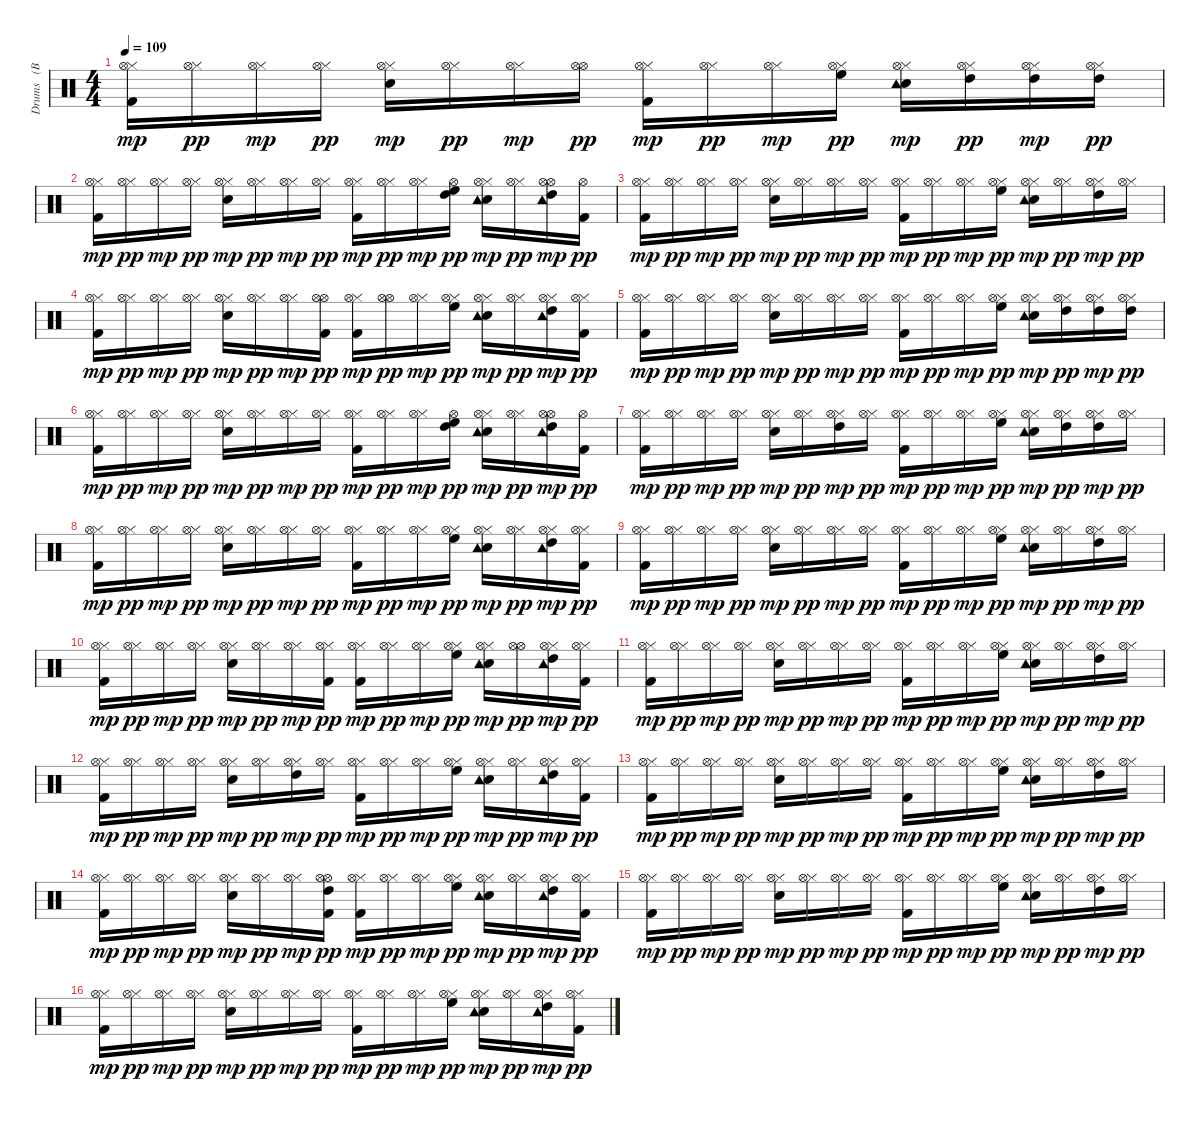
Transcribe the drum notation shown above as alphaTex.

\track ("Drums   (BB)" "Drums   (B") {instrument percussion}
\staff {score}
\articulation defaults
\ts (4 4)
\tempo 109
\clef neutral
\ks c
("Kick (hit) 2" "Hi-Hat (closed)" "Hi-Hat (open)").16{dy mp} ("Hi-Hat (closed)" "Hi-Hat (open)").16{dy pp} ("Hi-Hat (closed)" "Hi-Hat (open)").16{dy mp} ("Hi-Hat (closed)" "Hi-Hat (open)").16{dy pp} ("Snare (hit) 2" "Hi-Hat (closed)" "Hi-Hat (open)").16{dy mp} ("Hi-Hat (closed)" "Hi-Hat (open)").16{dy pp} ("Hi-Hat (closed)" "Hi-Hat (open)").16{dy mp} ("Hi-Hat (open)" "Hi-Hat (open)").16{dy pp} ("Kick (hit) 2" "Hi-Hat (closed)" "Hi-Hat (open)").16{dy mp} ("Hi-Hat (closed)" "Hi-Hat (open)").16{dy pp} ("Hi-Hat (closed)" "Hi-Hat (open)").16{dy mp} ("Hi-Hat (closed)" "High Floor Tom (hit)" "Hi-Hat (open)").16{dy pp} ("Snare (hit) 2" "Hi-Hat (closed)" "Tambourine (hit)" "Hi-Hat (open)").16{dy mp} ("Hi-Hat (closed)" "High Tom (hit)" "Hi-Hat (open)").16{dy pp} ("Hi-Hat (closed)" "High Tom (hit)" "Hi-Hat (open)").16{dy mp} ("Hi-Hat (closed)" "High Tom (hit)" "Hi-Hat (open)").16{dy pp} |
("Kick (hit) 2" "Hi-Hat (closed)" "Hi-Hat (open)").16{dy mp} ("Hi-Hat (closed)" "Hi-Hat (open)").16{dy pp} ("Hi-Hat (closed)" "Hi-Hat (open)").16{dy mp} ("Hi-Hat (closed)" "Hi-Hat (open)").16{dy pp} ("Snare (hit) 2" "Hi-Hat (closed)" "Hi-Hat (open)").16{dy mp} ("Hi-Hat (closed)" "Hi-Hat (open)").16{dy pp} ("Hi-Hat (closed)" "Hi-Hat (open)").16{dy mp} ("Hi-Hat (closed)" "Hi-Hat (open)").16{dy pp} ("Kick (hit) 2" "Hi-Hat (closed)" "Hi-Hat (open)").16{dy mp} ("Hi-Hat (closed)" "Hi-Hat (open)").16{dy pp} ("Hi-Hat (closed)" "Hi-Hat (open)").16{dy mp} ("High Tom (hit)" "High Floor Tom (hit)" "Hi-Hat (open)").16{dy pp} ("Snare (hit) 2" "Hi-Hat (closed)" "Tambourine (hit)" "Hi-Hat (open)").16{dy mp} ("Hi-Hat (closed)" "Hi-Hat (open)").16{dy pp} ("Hi-Hat (open)" "High Tom (hit)" "Tambourine (hit)" "Hi-Hat (open)").16{dy mp} ("Kick (hit) 2" "Hi-Hat (open)").16{dy pp} |
("Kick (hit) 2" "Hi-Hat (closed)" "Hi-Hat (open)").16{dy mp} ("Hi-Hat (closed)" "Hi-Hat (open)").16{dy pp} ("Hi-Hat (closed)" "Hi-Hat (open)").16{dy mp} ("Hi-Hat (closed)" "Hi-Hat (open)").16{dy pp} ("Snare (hit) 2" "Hi-Hat (closed)" "Hi-Hat (open)").16{dy mp} ("Hi-Hat (closed)" "Hi-Hat (open)").16{dy pp} ("Hi-Hat (closed)" "Hi-Hat (open)").16{dy mp} ("Hi-Hat (closed)" "Hi-Hat (open)").16{dy pp} ("Kick (hit) 2" "Hi-Hat (closed)" "Hi-Hat (open)").16{dy mp} ("Hi-Hat (closed)" "Hi-Hat (open)").16{dy pp} ("Hi-Hat (closed)" "Hi-Hat (open)").16{dy mp} ("Hi-Hat (closed)" "High Floor Tom (hit)" "Hi-Hat (open)").16{dy pp} ("Snare (hit) 2" "Hi-Hat (closed)" "Tambourine (hit)" "Hi-Hat (open)").16{dy mp} ("Hi-Hat (closed)" "Hi-Hat (open)").16{dy pp} ("Hi-Hat (closed)" "High Tom (hit)" "Hi-Hat (open)").16{dy mp} ("Hi-Hat (closed)" "Hi-Hat (open)").16{dy pp} |
("Kick (hit) 2" "Hi-Hat (closed)" "Hi-Hat (open)").16{dy mp} ("Hi-Hat (closed)" "Hi-Hat (open)").16{dy pp} ("Hi-Hat (closed)" "Hi-Hat (open)").16{dy mp} ("Hi-Hat (closed)" "Hi-Hat (open)").16{dy pp} ("Snare (hit) 2" "Hi-Hat (closed)" "Hi-Hat (open)").16{dy mp} ("Hi-Hat (closed)" "Hi-Hat (open)").16{dy pp} ("Hi-Hat (closed)" "Hi-Hat (open)").16{dy mp} ("Kick (hit) 2" "Hi-Hat (open)" "Hi-Hat (open)").16{dy pp} ("Kick (hit) 2" "Hi-Hat (closed)" "Hi-Hat (open)").16{dy mp} ("Hi-Hat (open)" "Hi-Hat (open)").16{dy pp} ("Hi-Hat (closed)" "Hi-Hat (open)").16{dy mp} ("Hi-Hat (closed)" "High Floor Tom (hit)" "Hi-Hat (open)").16{dy pp} ("Snare (hit) 2" "Hi-Hat (closed)" "Tambourine (hit)" "Hi-Hat (open)").16{dy mp} ("Hi-Hat (closed)" "Hi-Hat (open)").16{dy pp} ("Hi-Hat (closed)" "High Tom (hit)" "Tambourine (hit)" "Hi-Hat (open)").16{dy mp} ("Kick (hit) 2" "Hi-Hat (closed)" "Hi-Hat (open)").16{dy pp} |
("Kick (hit) 2" "Hi-Hat (closed)" "Hi-Hat (open)").16{dy mp} ("Hi-Hat (closed)" "Hi-Hat (open)").16{dy pp} ("Hi-Hat (closed)" "Hi-Hat (open)").16{dy mp} ("Hi-Hat (closed)" "Hi-Hat (open)").16{dy pp} ("Snare (hit) 2" "Hi-Hat (closed)" "Hi-Hat (open)").16{dy mp} ("Hi-Hat (closed)" "Hi-Hat (open)").16{dy pp} ("Hi-Hat (closed)" "Hi-Hat (open)").16{dy mp} ("Hi-Hat (closed)" "Hi-Hat (open)").16{dy pp} ("Kick (hit) 2" "Hi-Hat (closed)" "Hi-Hat (open)").16{dy mp} ("Hi-Hat (closed)" "Hi-Hat (open)").16{dy pp} ("Hi-Hat (closed)" "Hi-Hat (open)").16{dy mp} ("Hi-Hat (closed)" "High Floor Tom (hit)" "Hi-Hat (open)").16{dy pp} ("Snare (hit) 2" "Hi-Hat (closed)" "Tambourine (hit)" "Hi-Hat (open)").16{dy mp} ("Hi-Hat (closed)" "High Tom (hit)" "Hi-Hat (open)").16{dy pp} ("Hi-Hat (closed)" "High Tom (hit)" "Hi-Hat (open)").16{dy mp} ("Hi-Hat (closed)" "High Tom (hit)" "Hi-Hat (open)").16{dy pp} |
("Kick (hit) 2" "Hi-Hat (closed)" "Hi-Hat (open)").16{dy mp} ("Hi-Hat (closed)" "Hi-Hat (open)").16{dy pp} ("Hi-Hat (closed)" "Hi-Hat (open)").16{dy mp} ("Hi-Hat (closed)" "Hi-Hat (open)").16{dy pp} ("Snare (hit) 2" "Hi-Hat (closed)" "Hi-Hat (open)").16{dy mp} ("Hi-Hat (closed)" "Hi-Hat (open)").16{dy pp} ("Hi-Hat (closed)" "Hi-Hat (open)").16{dy mp} ("Hi-Hat (closed)" "Hi-Hat (open)").16{dy pp} ("Kick (hit) 2" "Hi-Hat (closed)" "Hi-Hat (open)").16{dy mp} ("Hi-Hat (closed)" "Hi-Hat (open)").16{dy pp} ("Hi-Hat (closed)" "Hi-Hat (open)").16{dy mp} ("High Tom (hit)" "High Floor Tom (hit)" "Hi-Hat (open)").16{dy pp} ("Snare (hit) 2" "Hi-Hat (closed)" "Tambourine (hit)" "Hi-Hat (open)").16{dy mp} ("Hi-Hat (closed)" "Hi-Hat (open)").16{dy pp} ("Hi-Hat (open)" "High Tom (hit)" "Tambourine (hit)" "Hi-Hat (open)").16{dy mp} ("Kick (hit) 2" "Hi-Hat (open)").16{dy pp} |
("Kick (hit) 2" "Hi-Hat (closed)" "Hi-Hat (open)").16{dy mp} ("Hi-Hat (closed)" "Hi-Hat (open)").16{dy pp} ("Hi-Hat (closed)" "Hi-Hat (open)").16{dy mp} ("Hi-Hat (closed)" "Hi-Hat (open)").16{dy pp} ("Snare (hit) 2" "Hi-Hat (closed)" "Hi-Hat (open)").16{dy mp} ("Hi-Hat (closed)" "Hi-Hat (open)").16{dy pp} ("Hi-Hat (closed)" "High Tom (hit)" "Hi-Hat (open)").16{dy mp} ("Hi-Hat (closed)" "Hi-Hat (open)").16{dy pp} ("Kick (hit) 2" "Hi-Hat (closed)" "Hi-Hat (open)").16{dy mp} ("Hi-Hat (closed)" "Hi-Hat (open)").16{dy pp} ("Hi-Hat (closed)" "Hi-Hat (open)").16{dy mp} ("Hi-Hat (closed)" "High Floor Tom (hit)" "Hi-Hat (open)").16{dy pp} ("Snare (hit) 2" "Hi-Hat (closed)" "Tambourine (hit)" "Hi-Hat (open)").16{dy mp} ("Hi-Hat (closed)" "High Tom (hit)" "Hi-Hat (open)").16{dy pp} ("Hi-Hat (closed)" "High Tom (hit)" "Hi-Hat (open)").16{dy mp} ("Hi-Hat (closed)" "Hi-Hat (open)").16{dy pp} |
("Kick (hit) 2" "Hi-Hat (closed)" "Hi-Hat (open)").16{dy mp} ("Hi-Hat (closed)" "Hi-Hat (open)").16{dy pp} ("Hi-Hat (closed)" "Hi-Hat (open)").16{dy mp} ("Hi-Hat (closed)" "Hi-Hat (open)").16{dy pp} ("Snare (hit) 2" "Hi-Hat (closed)" "Hi-Hat (open)").16{dy mp} ("Hi-Hat (closed)" "Hi-Hat (open)").16{dy pp} ("Hi-Hat (closed)" "Hi-Hat (open)").16{dy mp} ("Hi-Hat (closed)" "Hi-Hat (open)").16{dy pp} ("Kick (hit) 2" "Hi-Hat (closed)" "Hi-Hat (open)").16{dy mp} ("Hi-Hat (closed)" "Hi-Hat (open)").16{dy pp} ("Hi-Hat (closed)" "Hi-Hat (open)").16{dy mp} ("Hi-Hat (closed)" "High Floor Tom (hit)" "Hi-Hat (open)").16{dy pp} ("Snare (hit) 2" "Hi-Hat (closed)" "Tambourine (hit)" "Hi-Hat (open)").16{dy mp} ("Hi-Hat (closed)" "Hi-Hat (open)").16{dy pp} ("Hi-Hat (closed)" "High Tom (hit)" "Tambourine (hit)" "Hi-Hat (open)").16{dy mp} ("Kick (hit) 2" "Hi-Hat (closed)" "Hi-Hat (open)").16{dy pp} |
("Kick (hit) 2" "Hi-Hat (closed)" "Hi-Hat (open)").16{dy mp} ("Hi-Hat (closed)" "Hi-Hat (open)").16{dy pp} ("Hi-Hat (closed)" "Hi-Hat (open)").16{dy mp} ("Hi-Hat (closed)" "Hi-Hat (open)").16{dy pp} ("Snare (hit) 2" "Hi-Hat (closed)" "Hi-Hat (open)").16{dy mp} ("Hi-Hat (closed)" "Hi-Hat (open)").16{dy pp} ("Hi-Hat (closed)" "Hi-Hat (open)").16{dy mp} ("Hi-Hat (closed)" "Hi-Hat (open)").16{dy pp} ("Kick (hit) 2" "Hi-Hat (closed)" "Hi-Hat (open)").16{dy mp} ("Hi-Hat (closed)" "Hi-Hat (open)").16{dy pp} ("Hi-Hat (closed)" "Hi-Hat (open)").16{dy mp} ("Hi-Hat (closed)" "High Floor Tom (hit)" "Hi-Hat (open)").16{dy pp} ("Snare (hit) 2" "Hi-Hat (closed)" "Tambourine (hit)" "Hi-Hat (open)").16{dy mp} ("Hi-Hat (closed)" "Hi-Hat (open)").16{dy pp} ("Hi-Hat (closed)" "High Tom (hit)" "Hi-Hat (open)").16{dy mp} ("Hi-Hat (closed)" "Hi-Hat (open)").16{dy pp} |
("Kick (hit) 2" "Hi-Hat (closed)" "Hi-Hat (open)").16{dy mp} ("Hi-Hat (closed)" "Hi-Hat (open)").16{dy pp} ("Hi-Hat (closed)" "Hi-Hat (open)").16{dy mp} ("Hi-Hat (closed)" "Hi-Hat (open)").16{dy pp} ("Snare (hit) 2" "Hi-Hat (closed)" "Hi-Hat (open)").16{dy mp} ("Hi-Hat (closed)" "Hi-Hat (open)").16{dy pp} ("Hi-Hat (closed)" "Hi-Hat (open)").16{dy mp} ("Kick (hit) 2" "Hi-Hat (closed)" "Hi-Hat (open)").16{dy pp} ("Kick (hit) 2" "Hi-Hat (closed)" "Hi-Hat (open)").16{dy mp} ("Hi-Hat (closed)" "Hi-Hat (open)").16{dy pp} ("Hi-Hat (closed)" "Hi-Hat (open)").16{dy mp} ("Hi-Hat (closed)" "High Floor Tom (hit)" "Hi-Hat (open)").16{dy pp} ("Snare (hit) 2" "Hi-Hat (closed)" "Tambourine (hit)" "Hi-Hat (open)").16{dy mp} ("Hi-Hat (open)" "Hi-Hat (open)").16{dy pp} ("Hi-Hat (closed)" "High Tom (hit)" "Tambourine (hit)" "Hi-Hat (open)").16{dy mp} ("Kick (hit) 2" "Hi-Hat (closed)" "Hi-Hat (open)").16{dy pp} |
("Kick (hit) 2" "Hi-Hat (closed)" "Hi-Hat (open)").16{dy mp} ("Hi-Hat (closed)" "Hi-Hat (open)").16{dy pp} ("Hi-Hat (closed)" "Hi-Hat (open)").16{dy mp} ("Hi-Hat (closed)" "Hi-Hat (open)").16{dy pp} ("Snare (hit) 2" "Hi-Hat (closed)" "Hi-Hat (open)").16{dy mp} ("Hi-Hat (closed)" "Hi-Hat (open)").16{dy pp} ("Hi-Hat (closed)" "Hi-Hat (open)").16{dy mp} ("Hi-Hat (closed)" "Hi-Hat (open)").16{dy pp} ("Kick (hit) 2" "Hi-Hat (closed)" "Hi-Hat (open)").16{dy mp} ("Hi-Hat (closed)" "Hi-Hat (open)").16{dy pp} ("Hi-Hat (closed)" "Hi-Hat (open)").16{dy mp} ("Hi-Hat (closed)" "High Floor Tom (hit)" "Hi-Hat (open)").16{dy pp} ("Snare (hit) 2" "Hi-Hat (closed)" "Tambourine (hit)" "Hi-Hat (open)").16{dy mp} ("Hi-Hat (closed)" "Hi-Hat (open)").16{dy pp} ("Hi-Hat (closed)" "High Tom (hit)" "Hi-Hat (open)").16{dy mp} ("Hi-Hat (closed)" "Hi-Hat (open)").16{dy pp} |
("Kick (hit) 2" "Hi-Hat (closed)" "Hi-Hat (open)").16{dy mp} ("Hi-Hat (closed)" "Hi-Hat (open)").16{dy pp} ("Hi-Hat (closed)" "Hi-Hat (open)").16{dy mp} ("Hi-Hat (closed)" "Hi-Hat (open)").16{dy pp} ("Snare (hit) 2" "Hi-Hat (closed)" "Hi-Hat (open)").16{dy mp} ("Hi-Hat (closed)" "Hi-Hat (open)").16{dy pp} ("Hi-Hat (closed)" "High Tom (hit)" "Hi-Hat (open)").16{dy mp} ("Hi-Hat (closed)" "Hi-Hat (open)").16{dy pp} ("Kick (hit) 2" "Hi-Hat (closed)" "Hi-Hat (open)").16{dy mp} ("Hi-Hat (closed)" "Hi-Hat (open)").16{dy pp} ("Hi-Hat (closed)" "Hi-Hat (open)").16{dy mp} ("Hi-Hat (closed)" "High Floor Tom (hit)" "Hi-Hat (open)").16{dy pp} ("Snare (hit) 2" "Hi-Hat (closed)" "Tambourine (hit)" "Hi-Hat (open)").16{dy mp} ("Hi-Hat (closed)" "Hi-Hat (open)").16{dy pp} ("Hi-Hat (closed)" "High Tom (hit)" "Tambourine (hit)" "Hi-Hat (open)").16{dy mp} ("Kick (hit) 2" "Hi-Hat (closed)" "Hi-Hat (open)").16{dy pp} |
("Kick (hit) 2" "Hi-Hat (closed)" "Hi-Hat (open)").16{dy mp} ("Hi-Hat (closed)" "Hi-Hat (open)").16{dy pp} ("Hi-Hat (closed)" "Hi-Hat (open)").16{dy mp} ("Hi-Hat (closed)" "Hi-Hat (open)").16{dy pp} ("Snare (hit) 2" "Hi-Hat (closed)" "Hi-Hat (open)").16{dy mp} ("Hi-Hat (closed)" "Hi-Hat (open)").16{dy pp} ("Hi-Hat (closed)" "Hi-Hat (open)").16{dy mp} ("Hi-Hat (closed)" "Hi-Hat (open)").16{dy pp} ("Kick (hit) 2" "Hi-Hat (closed)" "Hi-Hat (open)").16{dy mp} ("Hi-Hat (closed)" "Hi-Hat (open)").16{dy pp} ("Hi-Hat (closed)" "Hi-Hat (open)").16{dy mp} ("Hi-Hat (closed)" "High Floor Tom (hit)" "Hi-Hat (open)").16{dy pp} ("Snare (hit) 2" "Hi-Hat (closed)" "Tambourine (hit)" "Hi-Hat (open)").16{dy mp} ("Hi-Hat (closed)" "Hi-Hat (open)").16{dy pp} ("Hi-Hat (closed)" "High Tom (hit)" "Hi-Hat (open)").16{dy mp} ("Hi-Hat (closed)" "Hi-Hat (open)").16{dy pp} |
("Kick (hit) 2" "Hi-Hat (closed)" "Hi-Hat (open)").16{dy mp} ("Hi-Hat (closed)" "Hi-Hat (open)").16{dy pp} ("Hi-Hat (closed)" "Hi-Hat (open)").16{dy mp} ("Hi-Hat (closed)" "Hi-Hat (open)").16{dy pp} ("Snare (hit) 2" "Hi-Hat (closed)" "Hi-Hat (open)").16{dy mp} ("Hi-Hat (closed)" "Hi-Hat (open)").16{dy pp} ("Hi-Hat (closed)" "Hi-Hat (open)").16{dy mp} ("Kick (hit) 2" "Hi-Hat (open)" "High Tom (hit)" "Hi-Hat (open)").16{dy pp} ("Kick (hit) 2" "Hi-Hat (closed)" "Hi-Hat (open)").16{dy mp} ("Hi-Hat (closed)" "Hi-Hat (open)").16{dy pp} ("Hi-Hat (closed)" "Hi-Hat (open)").16{dy mp} ("Hi-Hat (closed)" "High Floor Tom (hit)" "Hi-Hat (open)").16{dy pp} ("Snare (hit) 2" "Hi-Hat (closed)" "Tambourine (hit)" "Hi-Hat (open)").16{dy mp} ("Hi-Hat (closed)" "Hi-Hat (open)").16{dy pp} ("Hi-Hat (closed)" "High Tom (hit)" "Tambourine (hit)" "Hi-Hat (open)").16{dy mp} ("Kick (hit) 2" "Hi-Hat (closed)" "Hi-Hat (open)").16{dy pp} |
("Kick (hit) 2" "Hi-Hat (closed)" "Hi-Hat (open)").16{dy mp} ("Hi-Hat (closed)" "Hi-Hat (open)").16{dy pp} ("Hi-Hat (closed)" "Hi-Hat (open)").16{dy mp} ("Hi-Hat (closed)" "Hi-Hat (open)").16{dy pp} ("Snare (hit) 2" "Hi-Hat (closed)" "Hi-Hat (open)").16{dy mp} ("Hi-Hat (closed)" "Hi-Hat (open)").16{dy pp} ("Hi-Hat (closed)" "Hi-Hat (open)").16{dy mp} ("Hi-Hat (closed)" "Hi-Hat (open)").16{dy pp} ("Kick (hit) 2" "Hi-Hat (closed)" "Hi-Hat (open)").16{dy mp} ("Hi-Hat (closed)" "Hi-Hat (open)").16{dy pp} ("Hi-Hat (closed)" "Hi-Hat (open)").16{dy mp} ("Hi-Hat (closed)" "High Floor Tom (hit)" "Hi-Hat (open)").16{dy pp} ("Snare (hit) 2" "Hi-Hat (closed)" "Tambourine (hit)" "Hi-Hat (open)").16{dy mp} ("Hi-Hat (closed)" "Hi-Hat (open)").16{dy pp} ("Hi-Hat (closed)" "High Tom (hit)" "Hi-Hat (open)").16{dy mp} ("Hi-Hat (closed)" "Hi-Hat (open)").16{dy pp} |
("Kick (hit) 2" "Hi-Hat (closed)" "Hi-Hat (open)").16{dy mp} ("Hi-Hat (closed)" "Hi-Hat (open)").16{dy pp} ("Hi-Hat (closed)" "Hi-Hat (open)").16{dy mp} ("Hi-Hat (closed)" "Hi-Hat (open)").16{dy pp} ("Snare (hit) 2" "Hi-Hat (closed)" "Hi-Hat (open)").16{dy mp} ("Hi-Hat (closed)" "Hi-Hat (open)").16{dy pp} ("Hi-Hat (closed)" "Hi-Hat (open)").16{dy mp} ("Hi-Hat (closed)" "Hi-Hat (open)").16{dy pp} ("Kick (hit) 2" "Hi-Hat (closed)" "Hi-Hat (open)").16{dy mp} ("Hi-Hat (closed)" "Hi-Hat (open)").16{dy pp} ("Hi-Hat (closed)" "Hi-Hat (open)").16{dy mp} ("Hi-Hat (closed)" "High Floor Tom (hit)" "Hi-Hat (open)").16{dy pp} ("Snare (hit) 2" "Hi-Hat (closed)" "Tambourine (hit)" "Hi-Hat (open)").16{dy mp} ("Hi-Hat (closed)" "Hi-Hat (open)").16{dy pp} ("Hi-Hat (closed)" "High Tom (hit)" "Tambourine (hit)" "Hi-Hat (open)").16{dy mp} ("Kick (hit) 2" "Hi-Hat (closed)" "Hi-Hat (open)").16{dy pp}
